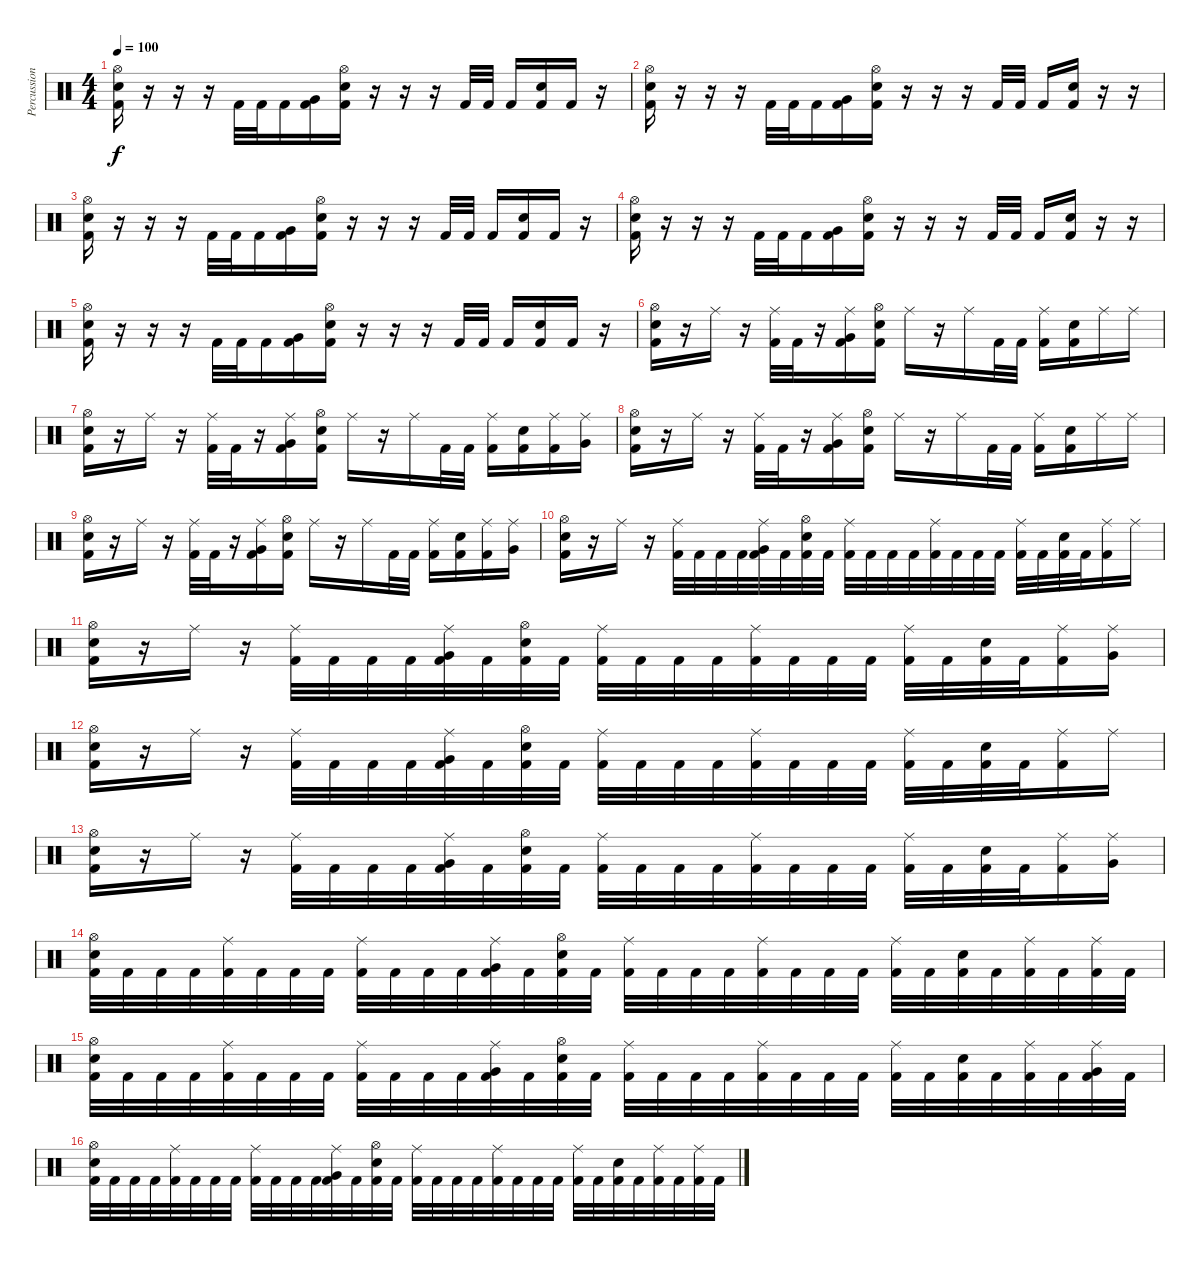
\track ("Percussion" "Percussion") {instrument percussion}
\staff {score}
\articulation defaults
\ts (4 4)
\tempo 100
\clef neutral
\ks c
("Hi-Hat (open)" "Electric Snare (hit)" "Kick (hit) 2").16{dy f} r.16 r.16 r.16 "Kick (hit) 2".32 "Kick (hit) 2".32 "Kick (hit) 2".16 ("Very Low Tom (hit)" "Kick (hit) 2").16 ("Hi-Hat (open)" "Electric Snare (hit)" "Kick (hit) 2").16 r.16 r.16 r.16 "Kick (hit) 2".32 "Kick (hit) 2".32 "Kick (hit) 2".16 ("Electric Snare (hit)" "Kick (hit) 2").16 "Kick (hit) 2".16 r.16 |
("Hi-Hat (open)" "Electric Snare (hit)" "Kick (hit) 2").16 r.16 r.16 r.16 "Kick (hit) 2".32 "Kick (hit) 2".32 "Kick (hit) 2".16 ("Very Low Tom (hit)" "Kick (hit) 2").16 ("Hi-Hat (open)" "Electric Snare (hit)" "Kick (hit) 2").16 r.16 r.16 r.16 "Kick (hit) 2".32 "Kick (hit) 2".32 "Kick (hit) 2".16 ("Electric Snare (hit)" "Kick (hit) 2").16 r.16 r.16 |
("Hi-Hat (open)" "Electric Snare (hit)" "Kick (hit) 2").16 r.16 r.16 r.16 "Kick (hit) 2".32 "Kick (hit) 2".32 "Kick (hit) 2".16 ("Very Low Tom (hit)" "Kick (hit) 2").16 ("Hi-Hat (open)" "Electric Snare (hit)" "Kick (hit) 2").16 r.16 r.16 r.16 "Kick (hit) 2".32 "Kick (hit) 2".32 "Kick (hit) 2".16 ("Electric Snare (hit)" "Kick (hit) 2").16 "Kick (hit) 2".16 r.16 |
("Hi-Hat (open)" "Electric Snare (hit)" "Kick (hit) 2").16 r.16 r.16 r.16 "Kick (hit) 2".32 "Kick (hit) 2".32 "Kick (hit) 2".16 ("Very Low Tom (hit)" "Kick (hit) 2").16 ("Hi-Hat (open)" "Electric Snare (hit)" "Kick (hit) 2").16 r.16 r.16 r.16 "Kick (hit) 2".32 "Kick (hit) 2".32 "Kick (hit) 2".16 ("Electric Snare (hit)" "Kick (hit) 2").16 r.16 r.16 |
("Hi-Hat (open)" "Electric Snare (hit)" "Kick (hit) 2").16 r.16 r.16 r.16 "Kick (hit) 2".32 "Kick (hit) 2".32 "Kick (hit) 2".16 ("Very Low Tom (hit)" "Kick (hit) 2").16 ("Hi-Hat (open)" "Electric Snare (hit)" "Kick (hit) 2").16 r.16 r.16 r.16 "Kick (hit) 2".32 "Kick (hit) 2".32 "Kick (hit) 2".16 ("Electric Snare (hit)" "Kick (hit) 2").16 "Kick (hit) 2".16 r.16 |
("Hi-Hat (open)" "Electric Snare (hit)" "Kick (hit) 2").16 r.16 "Ride (middle)".16 r.16 ("Ride (middle)" "Kick (hit) 2").32 "Kick (hit) 2".32 r.16 ("Ride (middle)" "Very Low Tom (hit)" "Kick (hit) 2").16 ("Hi-Hat (open)" "Electric Snare (hit)" "Kick (hit) 2").16 "Ride (middle)".16 r.16 "Ride (middle)".16 "Kick (hit) 2".32 "Kick (hit) 2".32 ("Ride (middle)" "Kick (hit) 2").16 ("Electric Snare (hit)" "Kick (hit) 2").16 "Ride (middle)".16 "Ride (middle)".16 |
("Hi-Hat (open)" "Electric Snare (hit)" "Kick (hit) 2").16 r.16 "Ride (middle)".16 r.16 ("Ride (middle)" "Kick (hit) 2").32 "Kick (hit) 2".32 r.16 ("Ride (middle)" "Very Low Tom (hit)" "Kick (hit) 2").16 ("Hi-Hat (open)" "Electric Snare (hit)" "Kick (hit) 2").16 "Ride (middle)".16 r.16 "Ride (middle)".16 "Kick (hit) 2".32 "Kick (hit) 2".32 ("Ride (middle)" "Kick (hit) 2").16 ("Electric Snare (hit)" "Kick (hit) 2").16 ("Ride (middle)" "Kick (hit) 2").16 ("Ride (middle)" "Very Low Tom (hit)").16 |
("Hi-Hat (open)" "Electric Snare (hit)" "Kick (hit) 2").16 r.16 "Ride (middle)".16 r.16 ("Ride (middle)" "Kick (hit) 2").32 "Kick (hit) 2".32 r.16 ("Ride (middle)" "Very Low Tom (hit)" "Kick (hit) 2").16 ("Hi-Hat (open)" "Electric Snare (hit)" "Kick (hit) 2").16 "Ride (middle)".16 r.16 "Ride (middle)".16 "Kick (hit) 2".32 "Kick (hit) 2".32 ("Ride (middle)" "Kick (hit) 2").16 ("Electric Snare (hit)" "Kick (hit) 2").16 "Ride (middle)".16 "Ride (middle)".16 |
("Hi-Hat (open)" "Electric Snare (hit)" "Kick (hit) 2").16 r.16 "Ride (middle)".16 r.16 ("Ride (middle)" "Kick (hit) 2").32 "Kick (hit) 2".32 r.16 ("Ride (middle)" "Very Low Tom (hit)" "Kick (hit) 2").16 ("Hi-Hat (open)" "Electric Snare (hit)" "Kick (hit) 2").16 "Ride (middle)".16 r.16 "Ride (middle)".16 "Kick (hit) 2".32 "Kick (hit) 2".32 ("Ride (middle)" "Kick (hit) 2").16 ("Electric Snare (hit)" "Kick (hit) 2").16 ("Ride (middle)" "Kick (hit) 2").16 ("Ride (middle)" "Very Low Tom (hit)").16 |
("Hi-Hat (open)" "Electric Snare (hit)" "Kick (hit) 2").16 r.16 "Ride (middle)".16 r.16 ("Ride (middle)" "Kick (hit) 2").32 "Kick (hit) 2".32 "Kick (hit) 2".32 "Kick (hit) 2".32 ("Ride (middle)" "Very Low Tom (hit)" "Kick (hit) 2").32 "Kick (hit) 2".32 ("Hi-Hat (open)" "Electric Snare (hit)" "Kick (hit) 2").32 "Kick (hit) 2".32 ("Ride (middle)" "Kick (hit) 2").32 "Kick (hit) 2".32 "Kick (hit) 2".32 "Kick (hit) 2".32 ("Ride (middle)" "Kick (hit) 2").32 "Kick (hit) 2".32 "Kick (hit) 2".32 "Kick (hit) 2".32 ("Ride (middle)" "Kick (hit) 2").32 "Kick (hit) 2".32 ("Electric Snare (hit)" "Kick (hit) 2").32 "Kick (hit) 2".32 ("Ride (middle)" "Kick (hit) 2").16 "Ride (middle)".16 |
("Hi-Hat (open)" "Electric Snare (hit)" "Kick (hit) 2").16 r.16 "Ride (middle)".16 r.16 ("Ride (middle)" "Kick (hit) 2").32 "Kick (hit) 2".32 "Kick (hit) 2".32 "Kick (hit) 2".32 ("Ride (middle)" "Very Low Tom (hit)" "Kick (hit) 2").32 "Kick (hit) 2".32 ("Hi-Hat (open)" "Electric Snare (hit)" "Kick (hit) 2").32 "Kick (hit) 2".32 ("Ride (middle)" "Kick (hit) 2").32 "Kick (hit) 2".32 "Kick (hit) 2".32 "Kick (hit) 2".32 ("Ride (middle)" "Kick (hit) 2").32 "Kick (hit) 2".32 "Kick (hit) 2".32 "Kick (hit) 2".32 ("Ride (middle)" "Kick (hit) 2").32 "Kick (hit) 2".32 ("Electric Snare (hit)" "Kick (hit) 2").32 "Kick (hit) 2".32 ("Ride (middle)" "Kick (hit) 2").16 ("Ride (middle)" "Very Low Tom (hit)").16 |
("Hi-Hat (open)" "Electric Snare (hit)" "Kick (hit) 2").16 r.16 "Ride (middle)".16 r.16 ("Ride (middle)" "Kick (hit) 2").32 "Kick (hit) 2".32 "Kick (hit) 2".32 "Kick (hit) 2".32 ("Ride (middle)" "Very Low Tom (hit)" "Kick (hit) 2").32 "Kick (hit) 2".32 ("Hi-Hat (open)" "Electric Snare (hit)" "Kick (hit) 2").32 "Kick (hit) 2".32 ("Ride (middle)" "Kick (hit) 2").32 "Kick (hit) 2".32 "Kick (hit) 2".32 "Kick (hit) 2".32 ("Ride (middle)" "Kick (hit) 2").32 "Kick (hit) 2".32 "Kick (hit) 2".32 "Kick (hit) 2".32 ("Ride (middle)" "Kick (hit) 2").32 "Kick (hit) 2".32 ("Electric Snare (hit)" "Kick (hit) 2").32 "Kick (hit) 2".32 ("Ride (middle)" "Kick (hit) 2").16 "Ride (middle)".16 |
("Hi-Hat (open)" "Electric Snare (hit)" "Kick (hit) 2").16 r.16 "Ride (middle)".16 r.16 ("Ride (middle)" "Kick (hit) 2").32 "Kick (hit) 2".32 "Kick (hit) 2".32 "Kick (hit) 2".32 ("Ride (middle)" "Very Low Tom (hit)" "Kick (hit) 2").32 "Kick (hit) 2".32 ("Hi-Hat (open)" "Electric Snare (hit)" "Kick (hit) 2").32 "Kick (hit) 2".32 ("Ride (middle)" "Kick (hit) 2").32 "Kick (hit) 2".32 "Kick (hit) 2".32 "Kick (hit) 2".32 ("Ride (middle)" "Kick (hit) 2").32 "Kick (hit) 2".32 "Kick (hit) 2".32 "Kick (hit) 2".32 ("Ride (middle)" "Kick (hit) 2").32 "Kick (hit) 2".32 ("Electric Snare (hit)" "Kick (hit) 2").32 "Kick (hit) 2".32 ("Ride (middle)" "Kick (hit) 2").16 ("Ride (middle)" "Very Low Tom (hit)").16 |
("Hi-Hat (open)" "Electric Snare (hit)" "Kick (hit) 2").32 "Kick (hit) 2".32 "Kick (hit) 2".32 "Kick (hit) 2".32 ("Ride (middle)" "Kick (hit) 2").32 "Kick (hit) 2".32 "Kick (hit) 2".32 "Kick (hit) 2".32 ("Ride (middle)" "Kick (hit) 2").32 "Kick (hit) 2".32 "Kick (hit) 2".32 "Kick (hit) 2".32 ("Ride (middle)" "Very Low Tom (hit)" "Kick (hit) 2").32 "Kick (hit) 2".32 ("Hi-Hat (open)" "Electric Snare (hit)" "Kick (hit) 2").32 "Kick (hit) 2".32 ("Ride (middle)" "Kick (hit) 2").32 "Kick (hit) 2".32 "Kick (hit) 2".32 "Kick (hit) 2".32 ("Ride (middle)" "Kick (hit) 2").32 "Kick (hit) 2".32 "Kick (hit) 2".32 "Kick (hit) 2".32 ("Ride (middle)" "Kick (hit) 2").32 "Kick (hit) 2".32 ("Electric Snare (hit)" "Kick (hit) 2").32 "Kick (hit) 2".32 ("Ride (middle)" "Kick (hit) 2").32 "Kick (hit) 2".32 ("Ride (middle)" "Kick (hit) 2").32 "Kick (hit) 2".32 |
("Hi-Hat (open)" "Electric Snare (hit)" "Kick (hit) 2").32 "Kick (hit) 2".32 "Kick (hit) 2".32 "Kick (hit) 2".32 ("Ride (middle)" "Kick (hit) 2").32 "Kick (hit) 2".32 "Kick (hit) 2".32 "Kick (hit) 2".32 ("Ride (middle)" "Kick (hit) 2").32 "Kick (hit) 2".32 "Kick (hit) 2".32 "Kick (hit) 2".32 ("Ride (middle)" "Very Low Tom (hit)" "Kick (hit) 2").32 "Kick (hit) 2".32 ("Hi-Hat (open)" "Electric Snare (hit)" "Kick (hit) 2").32 "Kick (hit) 2".32 ("Ride (middle)" "Kick (hit) 2").32 "Kick (hit) 2".32 "Kick (hit) 2".32 "Kick (hit) 2".32 ("Ride (middle)" "Kick (hit) 2").32 "Kick (hit) 2".32 "Kick (hit) 2".32 "Kick (hit) 2".32 ("Ride (middle)" "Kick (hit) 2").32 "Kick (hit) 2".32 ("Electric Snare (hit)" "Kick (hit) 2").32 "Kick (hit) 2".32 ("Ride (middle)" "Kick (hit) 2").32 "Kick (hit) 2".32 ("Ride (middle)" "Very Low Tom (hit)" "Kick (hit) 2").32 "Kick (hit) 2".32 |
("Hi-Hat (open)" "Electric Snare (hit)" "Kick (hit) 2").32 "Kick (hit) 2".32 "Kick (hit) 2".32 "Kick (hit) 2".32 ("Ride (middle)" "Kick (hit) 2").32 "Kick (hit) 2".32 "Kick (hit) 2".32 "Kick (hit) 2".32 ("Ride (middle)" "Kick (hit) 2").32 "Kick (hit) 2".32 "Kick (hit) 2".32 "Kick (hit) 2".32 ("Ride (middle)" "Very Low Tom (hit)" "Kick (hit) 2").32 "Kick (hit) 2".32 ("Hi-Hat (open)" "Electric Snare (hit)" "Kick (hit) 2").32 "Kick (hit) 2".32 ("Ride (middle)" "Kick (hit) 2").32 "Kick (hit) 2".32 "Kick (hit) 2".32 "Kick (hit) 2".32 ("Ride (middle)" "Kick (hit) 2").32 "Kick (hit) 2".32 "Kick (hit) 2".32 "Kick (hit) 2".32 ("Ride (middle)" "Kick (hit) 2").32 "Kick (hit) 2".32 ("Electric Snare (hit)" "Kick (hit) 2").32 "Kick (hit) 2".32 ("Ride (middle)" "Kick (hit) 2").32 "Kick (hit) 2".32 ("Ride (middle)" "Kick (hit) 2").32 "Kick (hit) 2".32
